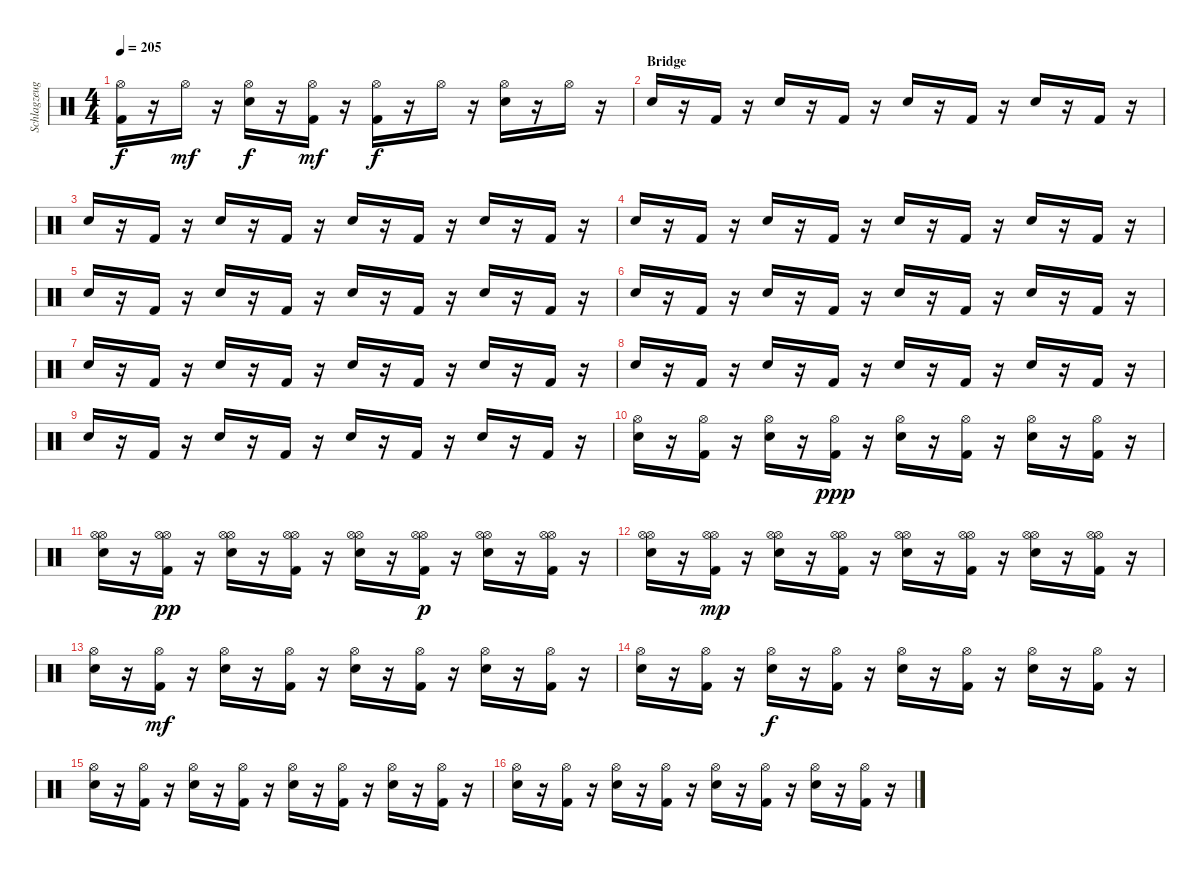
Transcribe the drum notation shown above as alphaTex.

\track ("Schlagzeug - Bela B." "Schlagzeug") {instrument percussion}
\staff {score}
\articulation defaults
\ts (4 4)
\tempo 205
\clef neutral
\ks c
("Kick (hit) 2" "Hi-Hat (open)").16{dy f} r.16 "Hi-Hat (open)".16{dy mf} r.16 ("Electric Snare (hit)" "Hi-Hat (open)").16{dy f} r.16 ("Kick (hit) 2" "Hi-Hat (open)").16{dy mf} r.16 ("Kick (hit) 2" "Hi-Hat (open)").16{dy f} r.16 "Hi-Hat (open)".16 r.16 ("Electric Snare (hit)" "Hi-Hat (open)").16 r.16 "Hi-Hat (open)".16 r.16 |
\section ("" "Bridge")
"Electric Snare (hit)".16 r.16 "Kick (hit) 2".16 r.16 "Electric Snare (hit)".16 r.16 "Kick (hit) 2".16 r.16 "Electric Snare (hit)".16 r.16 "Kick (hit) 2".16 r.16 "Electric Snare (hit)".16 r.16 "Kick (hit) 2".16 r.16 |
"Electric Snare (hit)".16 r.16 "Kick (hit) 2".16 r.16 "Electric Snare (hit)".16 r.16 "Kick (hit) 2".16 r.16 "Electric Snare (hit)".16 r.16 "Kick (hit) 2".16 r.16 "Electric Snare (hit)".16 r.16 "Kick (hit) 2".16 r.16 |
"Electric Snare (hit)".16 r.16 "Kick (hit) 2".16 r.16 "Electric Snare (hit)".16 r.16 "Kick (hit) 2".16 r.16 "Electric Snare (hit)".16 r.16 "Kick (hit) 2".16 r.16 "Electric Snare (hit)".16 r.16 "Kick (hit) 2".16 r.16 |
"Electric Snare (hit)".16 r.16 "Kick (hit) 2".16 r.16 "Electric Snare (hit)".16 r.16 "Kick (hit) 2".16 r.16 "Electric Snare (hit)".16 r.16 "Kick (hit) 2".16 r.16 "Electric Snare (hit)".16 r.16 "Kick (hit) 2".16 r.16 |
"Electric Snare (hit)".16 r.16 "Kick (hit) 2".16 r.16 "Electric Snare (hit)".16 r.16 "Kick (hit) 2".16 r.16 "Electric Snare (hit)".16 r.16 "Kick (hit) 2".16 r.16 "Electric Snare (hit)".16 r.16 "Kick (hit) 2".16 r.16 |
"Electric Snare (hit)".16 r.16 "Kick (hit) 2".16 r.16 "Electric Snare (hit)".16 r.16 "Kick (hit) 2".16 r.16 "Electric Snare (hit)".16 r.16 "Kick (hit) 2".16 r.16 "Electric Snare (hit)".16 r.16 "Kick (hit) 2".16 r.16 |
"Electric Snare (hit)".16 r.16 "Kick (hit) 2".16 r.16 "Electric Snare (hit)".16 r.16 "Kick (hit) 2".16 r.16 "Electric Snare (hit)".16 r.16 "Kick (hit) 2".16 r.16 "Electric Snare (hit)".16 r.16 "Kick (hit) 2".16 r.16 |
"Electric Snare (hit)".16 r.16 "Kick (hit) 2".16 r.16 "Electric Snare (hit)".16 r.16 "Kick (hit) 2".16 r.16 "Electric Snare (hit)".16 r.16 "Kick (hit) 2".16 r.16 "Electric Snare (hit)".16 r.16 "Kick (hit) 2".16 r.16 |
("Electric Snare (hit)" "Hi-Hat (open)").16 r.16 ("Kick (hit) 2" "Hi-Hat (open)").16 r.16 ("Electric Snare (hit)" "Hi-Hat (open)").16 r.16 ("Kick (hit) 2" "Hi-Hat (open)").16{dy ppp} r.16 ("Electric Snare (hit)" "Hi-Hat (open)").16 r.16 ("Kick (hit) 2" "Hi-Hat (open)").16 r.16 ("Electric Snare (hit)" "Hi-Hat (open)").16 r.16 ("Kick (hit) 2" "Hi-Hat (open)").16 r.16 |
("Electric Snare (hit)" "Hi-Hat (open)" "Hi-Hat (open)").16 r.16 ("Kick (hit) 2" "Hi-Hat (open)" "Hi-Hat (open)").16{dy pp} r.16 ("Electric Snare (hit)" "Hi-Hat (open)" "Hi-Hat (open)").16 r.16 ("Kick (hit) 2" "Hi-Hat (open)" "Hi-Hat (open)").16 r.16 ("Electric Snare (hit)" "Hi-Hat (open)" "Hi-Hat (open)").16 r.16 ("Kick (hit) 2" "Hi-Hat (open)" "Hi-Hat (open)").16{dy p} r.16 ("Electric Snare (hit)" "Hi-Hat (open)" "Hi-Hat (open)").16 r.16 ("Kick (hit) 2" "Hi-Hat (open)" "Hi-Hat (open)").16 r.16 |
("Electric Snare (hit)" "Hi-Hat (open)" "Hi-Hat (open)").16 r.16 ("Kick (hit) 2" "Hi-Hat (open)" "Hi-Hat (open)").16{dy mp} r.16 ("Electric Snare (hit)" "Hi-Hat (open)" "Hi-Hat (open)").16 r.16 ("Kick (hit) 2" "Hi-Hat (open)" "Hi-Hat (open)").16 r.16 ("Electric Snare (hit)" "Hi-Hat (open)" "Hi-Hat (open)").16 r.16 ("Kick (hit) 2" "Hi-Hat (open)" "Hi-Hat (open)").16 r.16 ("Electric Snare (hit)" "Hi-Hat (open)" "Hi-Hat (open)").16 r.16 ("Kick (hit) 2" "Hi-Hat (open)" "Hi-Hat (open)").16 r.16 |
("Electric Snare (hit)" "Hi-Hat (open)").16 r.16 ("Kick (hit) 2" "Hi-Hat (open)").16{dy mf} r.16 ("Electric Snare (hit)" "Hi-Hat (open)").16 r.16 ("Kick (hit) 2" "Hi-Hat (open)").16 r.16 ("Electric Snare (hit)" "Hi-Hat (open)").16 r.16 ("Kick (hit) 2" "Hi-Hat (open)").16 r.16 ("Electric Snare (hit)" "Hi-Hat (open)").16 r.16 ("Kick (hit) 2" "Hi-Hat (open)").16 r.16 |
("Electric Snare (hit)" "Hi-Hat (open)").16 r.16 ("Kick (hit) 2" "Hi-Hat (open)").16 r.16 ("Electric Snare (hit)" "Hi-Hat (open)").16{dy f} r.16 ("Kick (hit) 2" "Hi-Hat (open)").16 r.16 ("Electric Snare (hit)" "Hi-Hat (open)").16 r.16 ("Kick (hit) 2" "Hi-Hat (open)").16 r.16 ("Electric Snare (hit)" "Hi-Hat (open)").16 r.16 ("Kick (hit) 2" "Hi-Hat (open)").16 r.16 |
("Electric Snare (hit)" "Hi-Hat (open)").16 r.16 ("Kick (hit) 2" "Hi-Hat (open)").16 r.16 ("Electric Snare (hit)" "Hi-Hat (open)").16 r.16 ("Kick (hit) 2" "Hi-Hat (open)").16 r.16 ("Electric Snare (hit)" "Hi-Hat (open)").16 r.16 ("Kick (hit) 2" "Hi-Hat (open)").16 r.16 ("Electric Snare (hit)" "Hi-Hat (open)").16 r.16 ("Kick (hit) 2" "Hi-Hat (open)").16 r.16 |
("Electric Snare (hit)" "Hi-Hat (open)").16 r.16 ("Kick (hit) 2" "Hi-Hat (open)").16 r.16 ("Electric Snare (hit)" "Hi-Hat (open)").16 r.16 ("Kick (hit) 2" "Hi-Hat (open)").16 r.16 ("Electric Snare (hit)" "Hi-Hat (open)").16 r.16 ("Kick (hit) 2" "Hi-Hat (open)").16 r.16 ("Electric Snare (hit)" "Hi-Hat (open)").16 r.16 ("Kick (hit) 2" "Hi-Hat (open)").16 r.16
